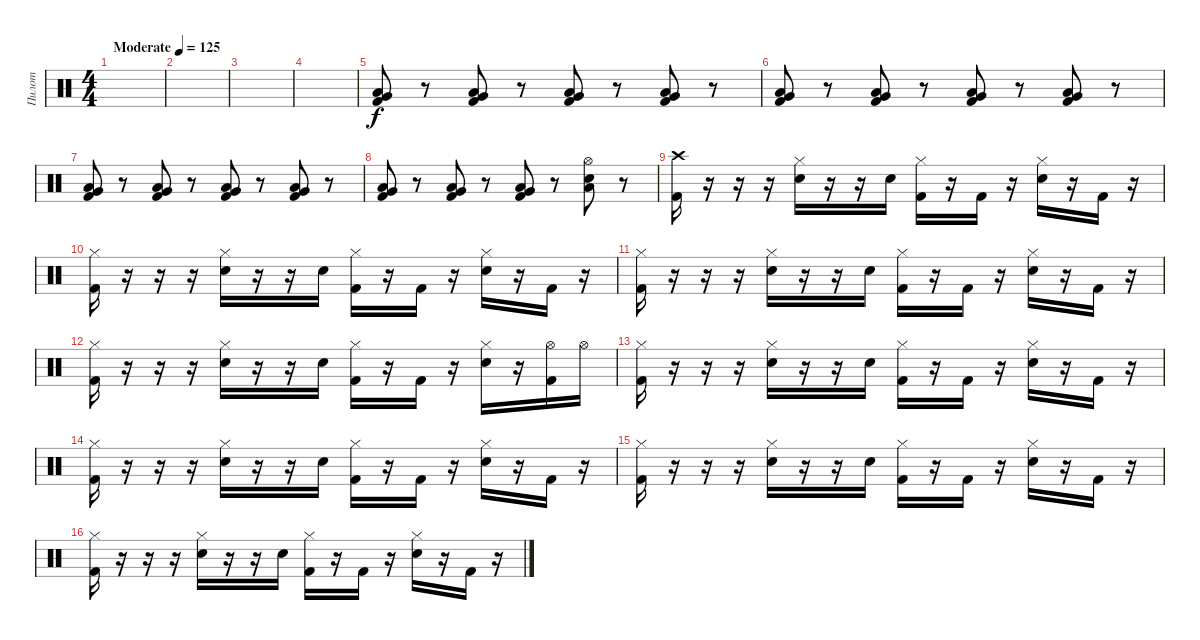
\track ("Пилот" "Пилот") {instrument percussion}
\staff {score}
\articulation defaults
\ts (4 4)
\tempo (125 "Moderate")
\clef neutral
\ks c
|
|
|
|
("Low Floor Tom (hit)" "Very Low Tom (hit)" "Kick (hit) 2").8 r.8 ("Low Floor Tom (hit)" "Very Low Tom (hit)" "Kick (hit) 2").8 r.8 ("Low Floor Tom (hit)" "Very Low Tom (hit)" "Kick (hit) 2").8 r.8 ("Low Floor Tom (hit)" "Very Low Tom (hit)" "Kick (hit) 2").8 r.8 |
("Low Floor Tom (hit)" "Very Low Tom (hit)" "Kick (hit) 2").8 r.8 ("Low Floor Tom (hit)" "Very Low Tom (hit)" "Kick (hit) 2").8 r.8 ("Low Floor Tom (hit)" "Very Low Tom (hit)" "Kick (hit) 2").8 r.8 ("Low Floor Tom (hit)" "Very Low Tom (hit)" "Kick (hit) 2").8 r.8 |
("Low Floor Tom (hit)" "Very Low Tom (hit)" "Kick (hit) 2").8 r.8 ("Low Floor Tom (hit)" "Very Low Tom (hit)" "Kick (hit) 2").8 r.8 ("Low Floor Tom (hit)" "Very Low Tom (hit)" "Kick (hit) 2").8 r.8 ("Low Floor Tom (hit)" "Very Low Tom (hit)" "Kick (hit) 2").8 r.8 |
("Low Floor Tom (hit)" "Very Low Tom (hit)" "Kick (hit) 2").8 r.8 ("Low Floor Tom (hit)" "Very Low Tom (hit)" "Kick (hit) 2").8 r.8 ("Low Floor Tom (hit)" "Very Low Tom (hit)" "Kick (hit) 2").8 r.8 ("Hi-Hat (open)" "Low Floor Tom (hit)" "Electric Snare (hit)").8 r.8 |
("Crash high (hit)" "Kick (hit) 2").16 r.16 r.16 r.16 ("Hi-Hat (closed)" "Electric Snare (hit)").16 r.16 r.16 "Electric Snare (hit)".16 ("Hi-Hat (closed)" "Kick (hit) 2").16 r.16 "Kick (hit) 2".16 r.16 ("Hi-Hat (closed)" "Electric Snare (hit)").16 r.16 "Kick (hit) 2".16 r.16 |
("Hi-Hat (closed)" "Kick (hit) 2").16 r.16 r.16 r.16 ("Hi-Hat (closed)" "Electric Snare (hit)").16 r.16 r.16 "Electric Snare (hit)".16 ("Hi-Hat (closed)" "Kick (hit) 2").16 r.16 "Kick (hit) 2".16 r.16 ("Hi-Hat (closed)" "Electric Snare (hit)").16 r.16 "Kick (hit) 2".16 r.16 |
("Hi-Hat (closed)" "Kick (hit) 2").16 r.16 r.16 r.16 ("Hi-Hat (closed)" "Electric Snare (hit)").16 r.16 r.16 "Electric Snare (hit)".16 ("Hi-Hat (closed)" "Kick (hit) 2").16 r.16 "Kick (hit) 2".16 r.16 ("Hi-Hat (closed)" "Electric Snare (hit)").16 r.16 "Kick (hit) 2".16 r.16 |
("Hi-Hat (closed)" "Kick (hit) 2").16 r.16 r.16 r.16 ("Hi-Hat (closed)" "Electric Snare (hit)").16 r.16 r.16 "Electric Snare (hit)".16 ("Hi-Hat (closed)" "Kick (hit) 2").16 r.16 "Kick (hit) 2".16 r.16 ("Hi-Hat (closed)" "Electric Snare (hit)").16 r.16 ("Hi-Hat (open)" "Kick (hit) 2").16 "Hi-Hat (open)".16 |
("Hi-Hat (closed)" "Kick (hit) 2").16 r.16 r.16 r.16 ("Hi-Hat (closed)" "Electric Snare (hit)").16 r.16 r.16 "Electric Snare (hit)".16 ("Hi-Hat (closed)" "Kick (hit) 2").16 r.16 "Kick (hit) 2".16 r.16 ("Hi-Hat (closed)" "Electric Snare (hit)").16 r.16 "Kick (hit) 2".16 r.16 |
("Hi-Hat (closed)" "Kick (hit) 2").16 r.16 r.16 r.16 ("Hi-Hat (closed)" "Electric Snare (hit)").16 r.16 r.16 "Electric Snare (hit)".16 ("Hi-Hat (closed)" "Kick (hit) 2").16 r.16 "Kick (hit) 2".16 r.16 ("Hi-Hat (closed)" "Electric Snare (hit)").16 r.16 "Kick (hit) 2".16 r.16 |
("Hi-Hat (closed)" "Kick (hit) 2").16 r.16 r.16 r.16 ("Hi-Hat (closed)" "Electric Snare (hit)").16 r.16 r.16 "Electric Snare (hit)".16 ("Hi-Hat (closed)" "Kick (hit) 2").16 r.16 "Kick (hit) 2".16 r.16 ("Hi-Hat (closed)" "Electric Snare (hit)").16 r.16 "Kick (hit) 2".16 r.16 |
("Hi-Hat (closed)" "Kick (hit) 2").16 r.16 r.16 r.16 ("Hi-Hat (closed)" "Electric Snare (hit)").16 r.16 r.16 "Electric Snare (hit)".16 ("Hi-Hat (closed)" "Kick (hit) 2").16 r.16 "Kick (hit) 2".16 r.16 ("Hi-Hat (closed)" "Electric Snare (hit)").16 r.16 "Kick (hit) 2".16 r.16
